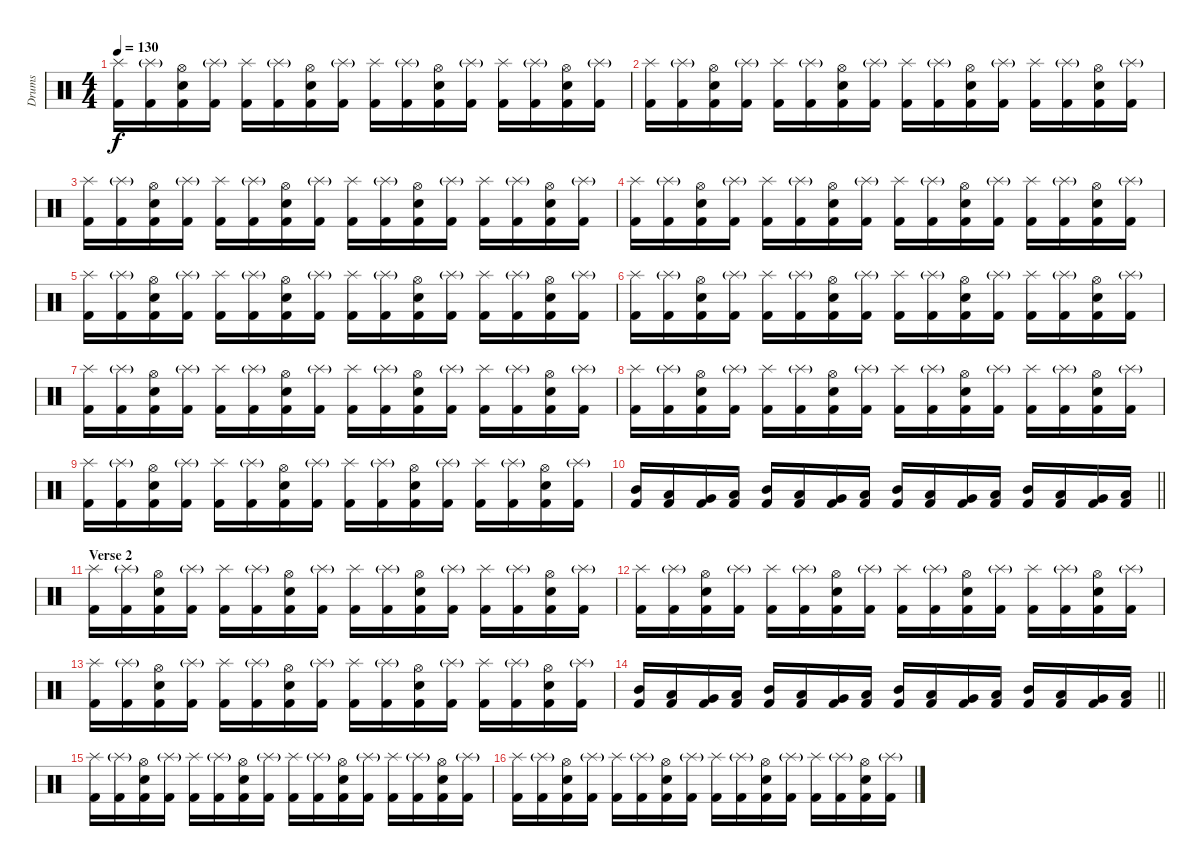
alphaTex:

\track ("Drums" "Drums") {instrument percussion}
\staff {score}
\articulation defaults
\ts (4 4)
\tempo 130
\clef neutral
\ks c
("Splash (hit)" "Kick (hit) 2").16{dy f} ("Splash (hit)"{g} "Kick (hit) 2").16 ("Hi-Hat (open)" "Electric Snare (hit)" "Kick (hit) 2").16 ("Splash (hit)"{g} "Kick (hit) 2").16 ("Splash (hit)" "Kick (hit) 2").16 ("Splash (hit)"{g} "Kick (hit) 2").16 ("Hi-Hat (open)" "Electric Snare (hit)" "Kick (hit) 2").16 ("Splash (hit)"{g} "Kick (hit) 2").16 ("Splash (hit)" "Kick (hit) 2").16 ("Splash (hit)"{g} "Kick (hit) 2").16 ("Hi-Hat (open)" "Electric Snare (hit)" "Kick (hit) 2").16 ("Splash (hit)"{g} "Kick (hit) 2").16 ("Splash (hit)" "Kick (hit) 2").16 ("Splash (hit)"{g} "Kick (hit) 2").16 ("Hi-Hat (open)" "Electric Snare (hit)" "Kick (hit) 2").16 ("Splash (hit)"{g} "Kick (hit) 2").16 |
("Splash (hit)" "Kick (hit) 2").16 ("Splash (hit)"{g} "Kick (hit) 2").16 ("Hi-Hat (open)" "Electric Snare (hit)" "Kick (hit) 2").16 ("Splash (hit)"{g} "Kick (hit) 2").16 ("Splash (hit)" "Kick (hit) 2").16 ("Splash (hit)"{g} "Kick (hit) 2").16 ("Hi-Hat (open)" "Electric Snare (hit)" "Kick (hit) 2").16 ("Splash (hit)"{g} "Kick (hit) 2").16 ("Splash (hit)" "Kick (hit) 2").16 ("Splash (hit)"{g} "Kick (hit) 2").16 ("Hi-Hat (open)" "Electric Snare (hit)" "Kick (hit) 2").16 ("Splash (hit)"{g} "Kick (hit) 2").16 ("Splash (hit)" "Kick (hit) 2").16 ("Splash (hit)"{g} "Kick (hit) 2").16 ("Hi-Hat (open)" "Electric Snare (hit)" "Kick (hit) 2").16 ("Splash (hit)"{g} "Kick (hit) 2").16 |
("Splash (hit)" "Kick (hit) 2").16 ("Splash (hit)"{g} "Kick (hit) 2").16 ("Hi-Hat (open)" "Electric Snare (hit)" "Kick (hit) 2").16 ("Splash (hit)"{g} "Kick (hit) 2").16 ("Splash (hit)" "Kick (hit) 2").16 ("Splash (hit)"{g} "Kick (hit) 2").16 ("Hi-Hat (open)" "Electric Snare (hit)" "Kick (hit) 2").16 ("Splash (hit)"{g} "Kick (hit) 2").16 ("Splash (hit)" "Kick (hit) 2").16 ("Splash (hit)"{g} "Kick (hit) 2").16 ("Hi-Hat (open)" "Electric Snare (hit)" "Kick (hit) 2").16 ("Splash (hit)"{g} "Kick (hit) 2").16 ("Splash (hit)" "Kick (hit) 2").16 ("Splash (hit)"{g} "Kick (hit) 2").16 ("Hi-Hat (open)" "Electric Snare (hit)" "Kick (hit) 2").16 ("Splash (hit)"{g} "Kick (hit) 2").16 |
("Splash (hit)" "Kick (hit) 2").16 ("Splash (hit)"{g} "Kick (hit) 2").16 ("Hi-Hat (open)" "Electric Snare (hit)" "Kick (hit) 2").16 ("Splash (hit)"{g} "Kick (hit) 2").16 ("Splash (hit)" "Kick (hit) 2").16 ("Splash (hit)"{g} "Kick (hit) 2").16 ("Hi-Hat (open)" "Electric Snare (hit)" "Kick (hit) 2").16 ("Splash (hit)"{g} "Kick (hit) 2").16 ("Splash (hit)" "Kick (hit) 2").16 ("Splash (hit)"{g} "Kick (hit) 2").16 ("Hi-Hat (open)" "Electric Snare (hit)" "Kick (hit) 2").16 ("Splash (hit)"{g} "Kick (hit) 2").16 ("Splash (hit)" "Kick (hit) 2").16 ("Splash (hit)"{g} "Kick (hit) 2").16 ("Hi-Hat (open)" "Electric Snare (hit)" "Kick (hit) 2").16 ("Splash (hit)"{g} "Kick (hit) 2").16 |
("Splash (hit)" "Kick (hit) 2").16 ("Splash (hit)"{g} "Kick (hit) 2").16 ("Hi-Hat (open)" "Electric Snare (hit)" "Kick (hit) 2").16 ("Splash (hit)"{g} "Kick (hit) 2").16 ("Splash (hit)" "Kick (hit) 2").16 ("Splash (hit)"{g} "Kick (hit) 2").16 ("Hi-Hat (open)" "Electric Snare (hit)" "Kick (hit) 2").16 ("Splash (hit)"{g} "Kick (hit) 2").16 ("Splash (hit)" "Kick (hit) 2").16 ("Splash (hit)"{g} "Kick (hit) 2").16 ("Hi-Hat (open)" "Electric Snare (hit)" "Kick (hit) 2").16 ("Splash (hit)"{g} "Kick (hit) 2").16 ("Splash (hit)" "Kick (hit) 2").16 ("Splash (hit)"{g} "Kick (hit) 2").16 ("Hi-Hat (open)" "Electric Snare (hit)" "Kick (hit) 2").16 ("Splash (hit)"{g} "Kick (hit) 2").16 |
("Splash (hit)" "Kick (hit) 2").16 ("Splash (hit)"{g} "Kick (hit) 2").16 ("Hi-Hat (open)" "Electric Snare (hit)" "Kick (hit) 2").16 ("Splash (hit)"{g} "Kick (hit) 2").16 ("Splash (hit)" "Kick (hit) 2").16 ("Splash (hit)"{g} "Kick (hit) 2").16 ("Hi-Hat (open)" "Electric Snare (hit)" "Kick (hit) 2").16 ("Splash (hit)"{g} "Kick (hit) 2").16 ("Splash (hit)" "Kick (hit) 2").16 ("Splash (hit)"{g} "Kick (hit) 2").16 ("Hi-Hat (open)" "Electric Snare (hit)" "Kick (hit) 2").16 ("Splash (hit)"{g} "Kick (hit) 2").16 ("Splash (hit)" "Kick (hit) 2").16 ("Splash (hit)"{g} "Kick (hit) 2").16 ("Hi-Hat (open)" "Electric Snare (hit)" "Kick (hit) 2").16 ("Splash (hit)"{g} "Kick (hit) 2").16 |
("Splash (hit)" "Kick (hit) 2").16 ("Splash (hit)"{g} "Kick (hit) 2").16 ("Hi-Hat (open)" "Electric Snare (hit)" "Kick (hit) 2").16 ("Splash (hit)"{g} "Kick (hit) 2").16 ("Splash (hit)" "Kick (hit) 2").16 ("Splash (hit)"{g} "Kick (hit) 2").16 ("Hi-Hat (open)" "Electric Snare (hit)" "Kick (hit) 2").16 ("Splash (hit)"{g} "Kick (hit) 2").16 ("Splash (hit)" "Kick (hit) 2").16 ("Splash (hit)"{g} "Kick (hit) 2").16 ("Hi-Hat (open)" "Electric Snare (hit)" "Kick (hit) 2").16 ("Splash (hit)"{g} "Kick (hit) 2").16 ("Splash (hit)" "Kick (hit) 2").16 ("Splash (hit)"{g} "Kick (hit) 2").16 ("Hi-Hat (open)" "Electric Snare (hit)" "Kick (hit) 2").16 ("Splash (hit)"{g} "Kick (hit) 2").16 |
("Splash (hit)" "Kick (hit) 2").16 ("Splash (hit)"{g} "Kick (hit) 2").16 ("Hi-Hat (open)" "Electric Snare (hit)" "Kick (hit) 2").16 ("Splash (hit)"{g} "Kick (hit) 2").16 ("Splash (hit)" "Kick (hit) 2").16 ("Splash (hit)"{g} "Kick (hit) 2").16 ("Hi-Hat (open)" "Electric Snare (hit)" "Kick (hit) 2").16 ("Splash (hit)"{g} "Kick (hit) 2").16 ("Splash (hit)" "Kick (hit) 2").16 ("Splash (hit)"{g} "Kick (hit) 2").16 ("Hi-Hat (open)" "Electric Snare (hit)" "Kick (hit) 2").16 ("Splash (hit)"{g} "Kick (hit) 2").16 ("Splash (hit)" "Kick (hit) 2").16 ("Splash (hit)"{g} "Kick (hit) 2").16 ("Hi-Hat (open)" "Electric Snare (hit)" "Kick (hit) 2").16 ("Splash (hit)"{g} "Kick (hit) 2").16 |
("Splash (hit)" "Kick (hit) 2").16 ("Splash (hit)"{g} "Kick (hit) 2").16 ("Hi-Hat (open)" "Electric Snare (hit)" "Kick (hit) 2").16 ("Splash (hit)"{g} "Kick (hit) 2").16 ("Splash (hit)" "Kick (hit) 2").16 ("Splash (hit)"{g} "Kick (hit) 2").16 ("Hi-Hat (open)" "Electric Snare (hit)" "Kick (hit) 2").16 ("Splash (hit)"{g} "Kick (hit) 2").16 ("Splash (hit)" "Kick (hit) 2").16 ("Splash (hit)"{g} "Kick (hit) 2").16 ("Hi-Hat (open)" "Electric Snare (hit)" "Kick (hit) 2").16 ("Splash (hit)"{g} "Kick (hit) 2").16 ("Splash (hit)" "Kick (hit) 2").16 ("Splash (hit)"{g} "Kick (hit) 2").16 ("Hi-Hat (open)" "Electric Snare (hit)" "Kick (hit) 2").16 ("Splash (hit)"{g} "Kick (hit) 2").16 |
\barLineRight lightlight
("Mid Tom (hit)" "Kick (hit) 2").16 ("Low Tom (hit)" "Kick (hit) 2").16 ("Very Low Tom (hit)" "Kick (hit) 2").16 ("Low Floor Tom (hit)" "Kick (hit) 2").16 ("Mid Tom (hit)" "Kick (hit) 2").16 ("Low Tom (hit)" "Kick (hit) 2").16 ("Very Low Tom (hit)" "Kick (hit) 2").16 ("Low Floor Tom (hit)" "Kick (hit) 2").16 ("Mid Tom (hit)" "Kick (hit) 2").16 ("Low Tom (hit)" "Kick (hit) 2").16 ("Very Low Tom (hit)" "Kick (hit) 2").16 ("Low Floor Tom (hit)" "Kick (hit) 2").16 ("Mid Tom (hit)" "Kick (hit) 2").16 ("Low Tom (hit)" "Kick (hit) 2").16 ("Very Low Tom (hit)" "Kick (hit) 2").16 ("Low Floor Tom (hit)" "Kick (hit) 2").16 |
\section ("" "Verse 2")
("Splash (hit)" "Kick (hit) 2").16 ("Splash (hit)"{g} "Kick (hit) 2").16 ("Hi-Hat (open)" "Electric Snare (hit)" "Kick (hit) 2").16 ("Splash (hit)"{g} "Kick (hit) 2").16 ("Splash (hit)" "Kick (hit) 2").16 ("Splash (hit)"{g} "Kick (hit) 2").16 ("Hi-Hat (open)" "Electric Snare (hit)" "Kick (hit) 2").16 ("Splash (hit)"{g} "Kick (hit) 2").16 ("Splash (hit)" "Kick (hit) 2").16 ("Splash (hit)"{g} "Kick (hit) 2").16 ("Hi-Hat (open)" "Electric Snare (hit)" "Kick (hit) 2").16 ("Splash (hit)"{g} "Kick (hit) 2").16 ("Splash (hit)" "Kick (hit) 2").16 ("Splash (hit)"{g} "Kick (hit) 2").16 ("Hi-Hat (open)" "Electric Snare (hit)" "Kick (hit) 2").16 ("Splash (hit)"{g} "Kick (hit) 2").16 |
("Splash (hit)" "Kick (hit) 2").16 ("Splash (hit)"{g} "Kick (hit) 2").16 ("Hi-Hat (open)" "Electric Snare (hit)" "Kick (hit) 2").16 ("Splash (hit)"{g} "Kick (hit) 2").16 ("Splash (hit)" "Kick (hit) 2").16 ("Splash (hit)"{g} "Kick (hit) 2").16 ("Hi-Hat (open)" "Electric Snare (hit)" "Kick (hit) 2").16 ("Splash (hit)"{g} "Kick (hit) 2").16 ("Splash (hit)" "Kick (hit) 2").16 ("Splash (hit)"{g} "Kick (hit) 2").16 ("Hi-Hat (open)" "Electric Snare (hit)" "Kick (hit) 2").16 ("Splash (hit)"{g} "Kick (hit) 2").16 ("Splash (hit)" "Kick (hit) 2").16 ("Splash (hit)"{g} "Kick (hit) 2").16 ("Hi-Hat (open)" "Electric Snare (hit)" "Kick (hit) 2").16 ("Splash (hit)"{g} "Kick (hit) 2").16 |
("Splash (hit)" "Kick (hit) 2").16 ("Splash (hit)"{g} "Kick (hit) 2").16 ("Hi-Hat (open)" "Electric Snare (hit)" "Kick (hit) 2").16 ("Splash (hit)"{g} "Kick (hit) 2").16 ("Splash (hit)" "Kick (hit) 2").16 ("Splash (hit)"{g} "Kick (hit) 2").16 ("Hi-Hat (open)" "Electric Snare (hit)" "Kick (hit) 2").16 ("Splash (hit)"{g} "Kick (hit) 2").16 ("Splash (hit)" "Kick (hit) 2").16 ("Splash (hit)"{g} "Kick (hit) 2").16 ("Hi-Hat (open)" "Electric Snare (hit)" "Kick (hit) 2").16 ("Splash (hit)"{g} "Kick (hit) 2").16 ("Splash (hit)" "Kick (hit) 2").16 ("Splash (hit)"{g} "Kick (hit) 2").16 ("Hi-Hat (open)" "Electric Snare (hit)" "Kick (hit) 2").16 ("Splash (hit)"{g} "Kick (hit) 2").16 |
\barLineRight lightlight
("Mid Tom (hit)" "Kick (hit) 2").16 ("Low Tom (hit)" "Kick (hit) 2").16 ("Very Low Tom (hit)" "Kick (hit) 2").16 ("Low Floor Tom (hit)" "Kick (hit) 2").16 ("Mid Tom (hit)" "Kick (hit) 2").16 ("Low Tom (hit)" "Kick (hit) 2").16 ("Very Low Tom (hit)" "Kick (hit) 2").16 ("Low Floor Tom (hit)" "Kick (hit) 2").16 ("Mid Tom (hit)" "Kick (hit) 2").16 ("Low Tom (hit)" "Kick (hit) 2").16 ("Very Low Tom (hit)" "Kick (hit) 2").16 ("Low Floor Tom (hit)" "Kick (hit) 2").16 ("Mid Tom (hit)" "Kick (hit) 2").16 ("Low Tom (hit)" "Kick (hit) 2").16 ("Very Low Tom (hit)" "Kick (hit) 2").16 ("Low Floor Tom (hit)" "Kick (hit) 2").16 |
("Splash (hit)" "Kick (hit) 2").16 ("Splash (hit)"{g} "Kick (hit) 2").16 ("Hi-Hat (open)" "Electric Snare (hit)" "Kick (hit) 2").16 ("Splash (hit)"{g} "Kick (hit) 2").16 ("Splash (hit)" "Kick (hit) 2").16 ("Splash (hit)"{g} "Kick (hit) 2").16 ("Hi-Hat (open)" "Electric Snare (hit)" "Kick (hit) 2").16 ("Splash (hit)"{g} "Kick (hit) 2").16 ("Splash (hit)" "Kick (hit) 2").16 ("Splash (hit)"{g} "Kick (hit) 2").16 ("Hi-Hat (open)" "Electric Snare (hit)" "Kick (hit) 2").16 ("Splash (hit)"{g} "Kick (hit) 2").16 ("Splash (hit)" "Kick (hit) 2").16 ("Splash (hit)"{g} "Kick (hit) 2").16 ("Hi-Hat (open)" "Electric Snare (hit)" "Kick (hit) 2").16 ("Splash (hit)"{g} "Kick (hit) 2").16 |
("Splash (hit)" "Kick (hit) 2").16 ("Splash (hit)"{g} "Kick (hit) 2").16 ("Hi-Hat (open)" "Electric Snare (hit)" "Kick (hit) 2").16 ("Splash (hit)"{g} "Kick (hit) 2").16 ("Splash (hit)" "Kick (hit) 2").16 ("Splash (hit)"{g} "Kick (hit) 2").16 ("Hi-Hat (open)" "Electric Snare (hit)" "Kick (hit) 2").16 ("Splash (hit)"{g} "Kick (hit) 2").16 ("Splash (hit)" "Kick (hit) 2").16 ("Splash (hit)"{g} "Kick (hit) 2").16 ("Hi-Hat (open)" "Electric Snare (hit)" "Kick (hit) 2").16 ("Splash (hit)"{g} "Kick (hit) 2").16 ("Splash (hit)" "Kick (hit) 2").16 ("Splash (hit)"{g} "Kick (hit) 2").16 ("Hi-Hat (open)" "Electric Snare (hit)" "Kick (hit) 2").16 ("Splash (hit)"{g} "Kick (hit) 2").16
